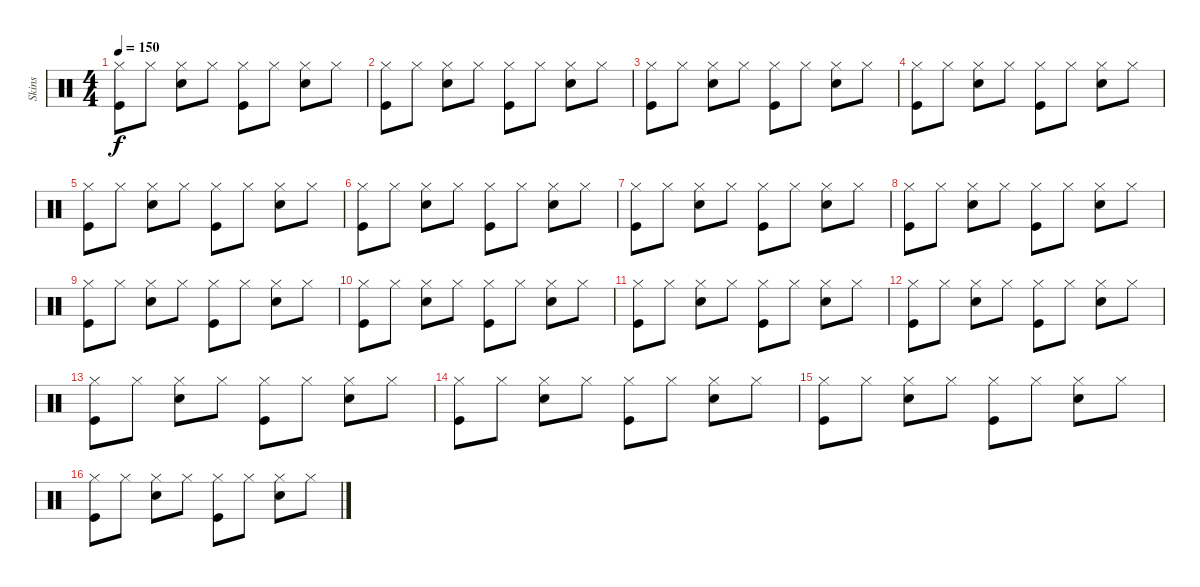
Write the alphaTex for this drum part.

\track ("Skins" "Skins") {instrument percussion}
\staff {score}
\articulation defaults
\ts (4 4)
\tempo 150
\clef neutral
\ks c
("Hi-Hat (closed)" "Kick (hit)").8{dy f} "Hi-Hat (closed)".8 ("Hi-Hat (closed)" "Snare (hit) 2").8 "Hi-Hat (closed)".8 ("Hi-Hat (closed)" "Kick (hit)").8 "Hi-Hat (closed)".8 ("Hi-Hat (closed)" "Snare (hit) 2").8 "Hi-Hat (closed)".8 |
("Hi-Hat (closed)" "Kick (hit)").8 "Hi-Hat (closed)".8 ("Hi-Hat (closed)" "Snare (hit) 2").8 "Hi-Hat (closed)".8 ("Hi-Hat (closed)" "Kick (hit)").8 "Hi-Hat (closed)".8 ("Hi-Hat (closed)" "Snare (hit) 2").8 "Hi-Hat (closed)".8 |
("Hi-Hat (closed)" "Kick (hit)").8 "Hi-Hat (closed)".8 ("Hi-Hat (closed)" "Snare (hit) 2").8 "Hi-Hat (closed)".8 ("Hi-Hat (closed)" "Kick (hit)").8 "Hi-Hat (closed)".8 ("Hi-Hat (closed)" "Snare (hit) 2").8 "Hi-Hat (closed)".8 |
("Hi-Hat (closed)" "Kick (hit)").8 "Hi-Hat (closed)".8 ("Hi-Hat (closed)" "Snare (hit) 2").8 "Hi-Hat (closed)".8 ("Hi-Hat (closed)" "Kick (hit)").8 "Hi-Hat (closed)".8 ("Hi-Hat (closed)" "Snare (hit) 2").8 "Hi-Hat (closed)".8 |
("Hi-Hat (closed)" "Kick (hit)").8 "Hi-Hat (closed)".8 ("Hi-Hat (closed)" "Snare (hit) 2").8 "Hi-Hat (closed)".8 ("Hi-Hat (closed)" "Kick (hit)").8 "Hi-Hat (closed)".8 ("Hi-Hat (closed)" "Snare (hit) 2").8 "Hi-Hat (closed)".8 |
("Hi-Hat (closed)" "Kick (hit)").8 "Hi-Hat (closed)".8 ("Hi-Hat (closed)" "Snare (hit) 2").8 "Hi-Hat (closed)".8 ("Hi-Hat (closed)" "Kick (hit)").8 "Hi-Hat (closed)".8 ("Hi-Hat (closed)" "Snare (hit) 2").8 "Hi-Hat (closed)".8 |
("Hi-Hat (closed)" "Kick (hit)").8 "Hi-Hat (closed)".8 ("Hi-Hat (closed)" "Snare (hit) 2").8 "Hi-Hat (closed)".8 ("Hi-Hat (closed)" "Kick (hit)").8 "Hi-Hat (closed)".8 ("Hi-Hat (closed)" "Snare (hit) 2").8 "Hi-Hat (closed)".8 |
("Hi-Hat (closed)" "Kick (hit)").8 "Hi-Hat (closed)".8 ("Hi-Hat (closed)" "Snare (hit) 2").8 "Hi-Hat (closed)".8 ("Hi-Hat (closed)" "Kick (hit)").8 "Hi-Hat (closed)".8 ("Hi-Hat (closed)" "Snare (hit) 2").8 "Hi-Hat (closed)".8 |
("Hi-Hat (closed)" "Kick (hit)").8 "Hi-Hat (closed)".8 ("Hi-Hat (closed)" "Snare (hit) 2").8 "Hi-Hat (closed)".8 ("Hi-Hat (closed)" "Kick (hit)").8 "Hi-Hat (closed)".8 ("Hi-Hat (closed)" "Snare (hit) 2").8 "Hi-Hat (closed)".8 |
("Hi-Hat (closed)" "Kick (hit)").8 "Hi-Hat (closed)".8 ("Hi-Hat (closed)" "Snare (hit) 2").8 "Hi-Hat (closed)".8 ("Hi-Hat (closed)" "Kick (hit)").8 "Hi-Hat (closed)".8 ("Hi-Hat (closed)" "Snare (hit) 2").8 "Hi-Hat (closed)".8 |
("Hi-Hat (closed)" "Kick (hit)").8 "Hi-Hat (closed)".8 ("Hi-Hat (closed)" "Snare (hit) 2").8 "Hi-Hat (closed)".8 ("Hi-Hat (closed)" "Kick (hit)").8 "Hi-Hat (closed)".8 ("Hi-Hat (closed)" "Snare (hit) 2").8 "Hi-Hat (closed)".8 |
("Hi-Hat (closed)" "Kick (hit)").8 "Hi-Hat (closed)".8 ("Hi-Hat (closed)" "Snare (hit) 2").8 "Hi-Hat (closed)".8 ("Hi-Hat (closed)" "Kick (hit)").8 "Hi-Hat (closed)".8 ("Hi-Hat (closed)" "Snare (hit) 2").8 "Hi-Hat (closed)".8 |
("Hi-Hat (closed)" "Kick (hit)").8 "Hi-Hat (closed)".8 ("Hi-Hat (closed)" "Snare (hit) 2").8 "Hi-Hat (closed)".8 ("Hi-Hat (closed)" "Kick (hit)").8 "Hi-Hat (closed)".8 ("Hi-Hat (closed)" "Snare (hit) 2").8 "Hi-Hat (closed)".8 |
("Hi-Hat (closed)" "Kick (hit)").8 "Hi-Hat (closed)".8 ("Hi-Hat (closed)" "Snare (hit) 2").8 "Hi-Hat (closed)".8 ("Hi-Hat (closed)" "Kick (hit)").8 "Hi-Hat (closed)".8 ("Hi-Hat (closed)" "Snare (hit) 2").8 "Hi-Hat (closed)".8 |
("Hi-Hat (closed)" "Kick (hit)").8 "Hi-Hat (closed)".8 ("Hi-Hat (closed)" "Snare (hit) 2").8 "Hi-Hat (closed)".8 ("Hi-Hat (closed)" "Kick (hit)").8 "Hi-Hat (closed)".8 ("Hi-Hat (closed)" "Snare (hit) 2").8 "Hi-Hat (closed)".8 |
("Hi-Hat (closed)" "Kick (hit)").8 "Hi-Hat (closed)".8 ("Hi-Hat (closed)" "Snare (hit) 2").8 "Hi-Hat (closed)".8 ("Hi-Hat (closed)" "Kick (hit)").8 "Hi-Hat (closed)".8 ("Hi-Hat (closed)" "Snare (hit) 2").8 "Hi-Hat (closed)".8
